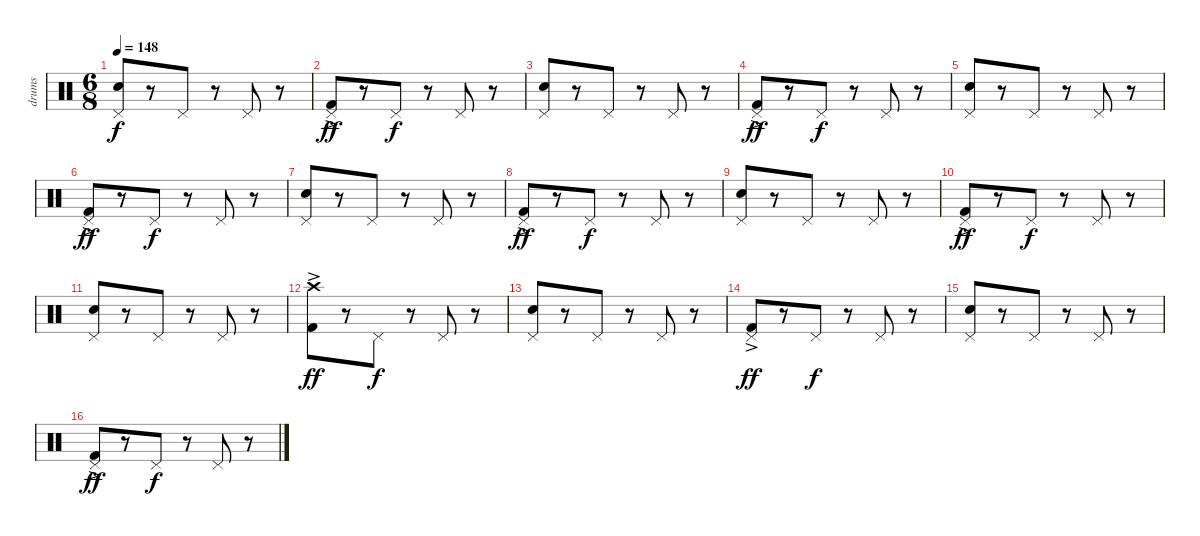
\track ("drums" "drums") {instrument percussion}
\staff {score}
\articulation defaults
\ts (6 8)
\tempo 148
\clef neutral
\ks c
("Pedal Hi-Hat (hit)" "Electric Snare (hit)").8{dy f} r.8 "Pedal Hi-Hat (hit)".8 r.8 "Pedal Hi-Hat (hit)".8 r.8 |
("Pedal Hi-Hat (hit)" "Kick (hit) 2"{ac}).8{dy ff} r.8 "Pedal Hi-Hat (hit)".8{dy f} r.8 "Pedal Hi-Hat (hit)".8 r.8 |
("Pedal Hi-Hat (hit)" "Electric Snare (hit)").8 r.8 "Pedal Hi-Hat (hit)".8 r.8 "Pedal Hi-Hat (hit)".8 r.8 |
("Pedal Hi-Hat (hit)" "Kick (hit) 2"{ac}).8{dy ff} r.8 "Pedal Hi-Hat (hit)".8{dy f} r.8 "Pedal Hi-Hat (hit)".8 r.8 |
("Pedal Hi-Hat (hit)" "Electric Snare (hit)").8 r.8 "Pedal Hi-Hat (hit)".8 r.8 "Pedal Hi-Hat (hit)".8 r.8 |
("Pedal Hi-Hat (hit)" "Kick (hit) 2"{ac}).8{dy ff} r.8 "Pedal Hi-Hat (hit)".8{dy f} r.8 "Pedal Hi-Hat (hit)".8 r.8 |
("Pedal Hi-Hat (hit)" "Electric Snare (hit)").8 r.8 "Pedal Hi-Hat (hit)".8 r.8 "Pedal Hi-Hat (hit)".8 r.8 |
("Pedal Hi-Hat (hit)" "Kick (hit) 2"{ac}).8{dy ff} r.8 "Pedal Hi-Hat (hit)".8{dy f} r.8 "Pedal Hi-Hat (hit)".8 r.8 |
("Pedal Hi-Hat (hit)" "Electric Snare (hit)").8 r.8 "Pedal Hi-Hat (hit)".8 r.8 "Pedal Hi-Hat (hit)".8 r.8 |
("Pedal Hi-Hat (hit)" "Kick (hit) 2"{ac}).8{dy ff} r.8 "Pedal Hi-Hat (hit)".8{dy f} r.8 "Pedal Hi-Hat (hit)".8 r.8 |
("Pedal Hi-Hat (hit)" "Electric Snare (hit)").8 r.8 "Pedal Hi-Hat (hit)".8 r.8 "Pedal Hi-Hat (hit)".8 r.8 |
("Crash high (hit)" "Kick (hit) 2"{ac}).8{dy ff} r.8 "Pedal Hi-Hat (hit)".8{dy f} r.8 "Pedal Hi-Hat (hit)".8 r.8 |
("Pedal Hi-Hat (hit)" "Electric Snare (hit)").8 r.8 "Pedal Hi-Hat (hit)".8 r.8 "Pedal Hi-Hat (hit)".8 r.8 |
("Pedal Hi-Hat (hit)" "Kick (hit) 2"{ac}).8{dy ff} r.8 "Pedal Hi-Hat (hit)".8{dy f} r.8 "Pedal Hi-Hat (hit)".8 r.8 |
("Pedal Hi-Hat (hit)" "Electric Snare (hit)").8 r.8 "Pedal Hi-Hat (hit)".8 r.8 "Pedal Hi-Hat (hit)".8 r.8 |
("Pedal Hi-Hat (hit)" "Kick (hit) 2"{ac}).8{dy ff} r.8 "Pedal Hi-Hat (hit)".8{dy f} r.8 "Pedal Hi-Hat (hit)".8 r.8
